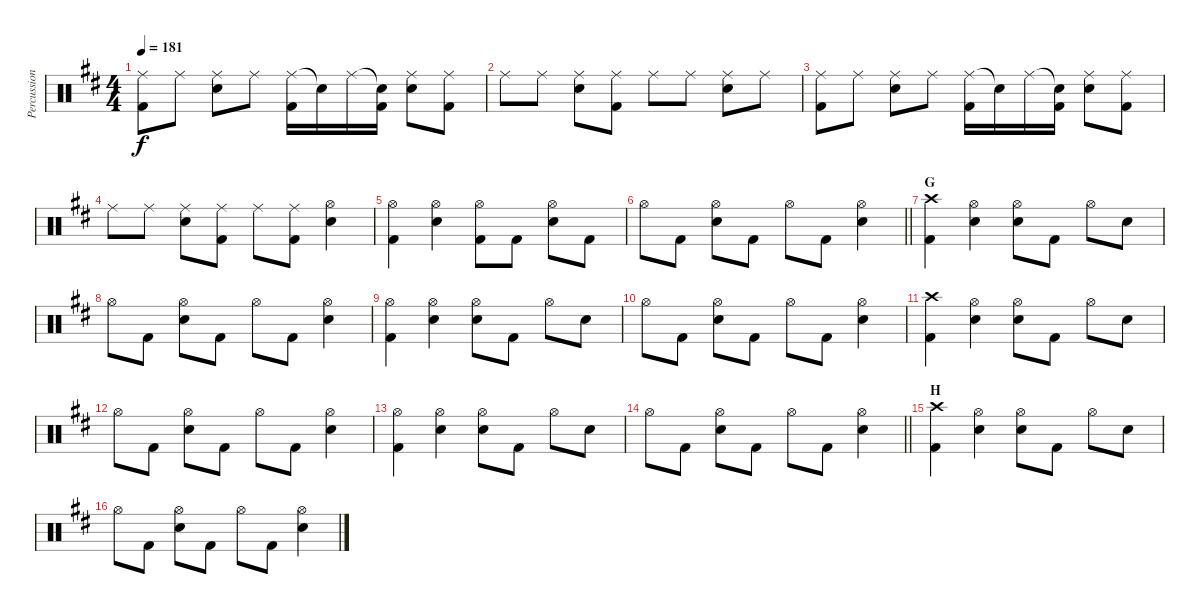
\track ("Percussion" "Percussion") {instrument percussion}
\staff {score}
\articulation defaults
\ts (4 4)
\tempo 181
\clef neutral
\ks d
("Ride (middle)" "Kick (hit) 2").8{dy f} "Ride (middle)".8 ("Ride (middle)" "Snare (hit) 2").8 "Ride (middle)".8 ("Ride (middle)" "Kick (hit) 2").16 "Snare (hit)"{t}.16 "Ride (middle)".16 ("Snare (hit)"{t} "Kick (hit) 2").16 ("Ride (middle)" "Snare (hit) 2").8 ("Ride (middle)" "Kick (hit) 2").8 |
"Ride (middle)".8 "Ride (middle)".8 ("Ride (middle)" "Snare (hit) 2").8 ("Ride (middle)" "Kick (hit) 2").8 "Ride (middle)".8 "Ride (middle)".8 ("Ride (middle)" "Snare (hit) 2").8 "Ride (middle)".8 |
("Ride (middle)" "Kick (hit) 2").8 "Ride (middle)".8 ("Ride (middle)" "Snare (hit) 2").8 "Ride (middle)".8 ("Ride (middle)" "Kick (hit) 2").16 "Snare (hit)"{t}.16 "Ride (middle)".16 ("Snare (hit)"{t} "Kick (hit) 2").16 ("Ride (middle)" "Snare (hit) 2").8 ("Ride (middle)" "Kick (hit) 2").8 |
"Ride (middle)".8 "Ride (middle)".8 ("Ride (middle)" "Snare (hit) 2").8 ("Ride (middle)" "Kick (hit) 2").8 "Ride (middle)".8 ("Ride (middle)" "Kick (hit) 2").8 ("Hi-Hat (open)" "Snare (hit) 2").4 |
("Hi-Hat (open)" "Kick (hit) 2").4 ("Hi-Hat (open)" "Snare (hit) 2").4 ("Hi-Hat (open)" "Kick (hit) 2").8 "Kick (hit) 2".8 ("Hi-Hat (open)" "Snare (hit) 2").8 "Kick (hit) 2".8 |
\barLineRight lightlight "Hi-Hat (open)".8 "Kick (hit) 2".8
("Hi-Hat (open)" "Snare (hit) 2").8 "Kick (hit) 2".8 "Hi-Hat (open)".8 "Kick (hit) 2".8 ("Hi-Hat (open)" "Snare (hit) 2").4 |
\section ("" "G")
("Crash high (hit)" "Kick (hit) 2").4 ("Hi-Hat (open)" "Snare (hit) 2").4 ("Hi-Hat (open)" "Snare (hit) 2").8 "Kick (hit) 2".8 "Hi-Hat (open)".8 "Snare (hit) 2".8 |
"Hi-Hat (open)".8 "Kick (hit) 2".8 ("Hi-Hat (open)" "Snare (hit) 2").8 "Kick (hit) 2".8 "Hi-Hat (open)".8 "Kick (hit) 2".8 ("Hi-Hat (open)" "Snare (hit) 2").4 |
("Hi-Hat (open)" "Kick (hit) 2").4 ("Hi-Hat (open)" "Snare (hit) 2").4 ("Hi-Hat (open)" "Snare (hit) 2").8 "Kick (hit) 2".8 "Hi-Hat (open)".8 "Snare (hit) 2".8 |
"Hi-Hat (open)".8 "Kick (hit) 2".8 ("Hi-Hat (open)" "Snare (hit) 2").8 "Kick (hit) 2".8 "Hi-Hat (open)".8 "Kick (hit) 2".8 ("Hi-Hat (open)" "Snare (hit) 2").4 |
("Crash high (hit)" "Kick (hit) 2").4 ("Hi-Hat (open)" "Snare (hit) 2").4 ("Hi-Hat (open)" "Snare (hit) 2").8 "Kick (hit) 2".8 "Hi-Hat (open)".8 "Snare (hit) 2".8 |
"Hi-Hat (open)".8 "Kick (hit) 2".8 ("Hi-Hat (open)" "Snare (hit) 2").8 "Kick (hit) 2".8 "Hi-Hat (open)".8 "Kick (hit) 2".8 ("Hi-Hat (open)" "Snare (hit) 2").4 |
("Hi-Hat (open)" "Kick (hit) 2").4 ("Hi-Hat (open)" "Snare (hit) 2").4 ("Hi-Hat (open)" "Snare (hit) 2").8 "Kick (hit) 2".8 "Hi-Hat (open)".8 "Snare (hit) 2".8 |
\barLineRight lightlight "Hi-Hat (open)".8 "Kick (hit) 2".8
("Hi-Hat (open)" "Snare (hit) 2").8 "Kick (hit) 2".8 "Hi-Hat (open)".8 "Kick (hit) 2".8 ("Hi-Hat (open)" "Snare (hit) 2").4 |
\section ("" "H")
("Crash high (hit)" "Kick (hit) 2").4 ("Hi-Hat (open)" "Snare (hit) 2").4 ("Hi-Hat (open)" "Snare (hit) 2").8 "Kick (hit) 2".8 "Hi-Hat (open)".8 "Snare (hit) 2".8 |
"Hi-Hat (open)".8 "Kick (hit) 2".8 ("Hi-Hat (open)" "Snare (hit) 2").8 "Kick (hit) 2".8 "Hi-Hat (open)".8 "Kick (hit) 2".8 ("Hi-Hat (open)" "Snare (hit) 2").4
